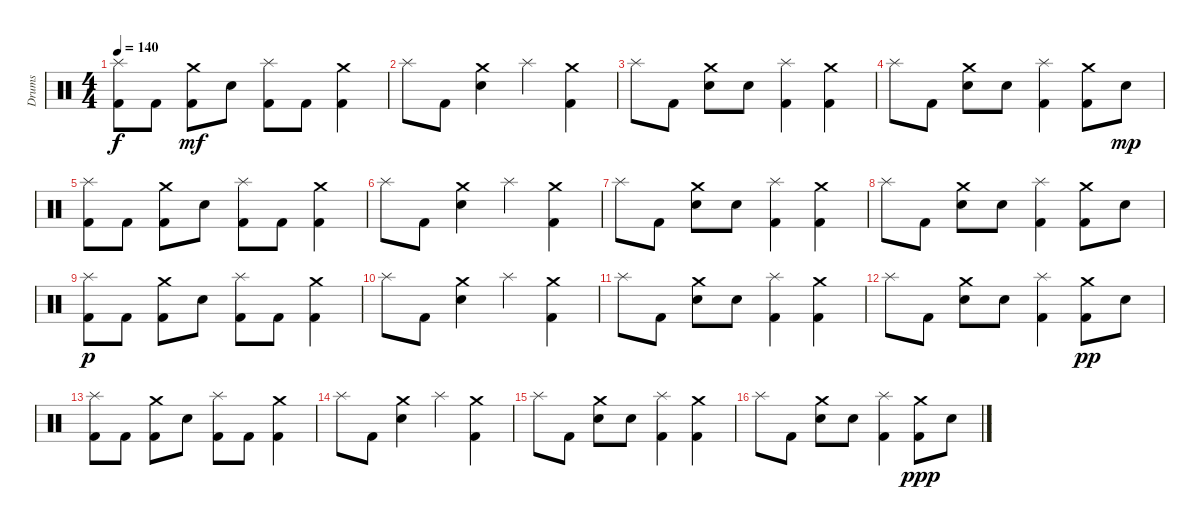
\track ("Drums" "Drums") {instrument percussion}
\staff {score}
\articulation defaults
\ts (4 4)
\tempo 140
\clef neutral
\ks c
("Splash (hit)" "Kick (hit) 2").8{dy f} "Kick (hit) 2".8 ("Crash medium (hit)" "Kick (hit) 2").8{dy mf} "Snare (hit) 2".8 ("Splash (hit)" "Kick (hit) 2").8 "Kick (hit) 2".8 ("Crash medium (hit)" "Kick (hit) 2").4 |
"Splash (hit)".8 "Kick (hit) 2".8 ("Crash medium (hit)" "Snare (hit) 2").4 "Splash (hit)".4 ("Crash medium (hit)" "Kick (hit) 2").4 |
"Splash (hit)".8 "Kick (hit) 2".8 ("Crash medium (hit)" "Snare (hit) 2").8 "Snare (hit) 2".8 ("Splash (hit)" "Kick (hit) 2").4 ("Crash medium (hit)" "Kick (hit) 2").4 |
"Splash (hit)".8 "Kick (hit) 2".8 ("Crash medium (hit)" "Snare (hit) 2").8 "Snare (hit) 2".8 ("Splash (hit)" "Kick (hit) 2").4 ("Crash medium (hit)" "Kick (hit) 2").8 "Snare (hit) 2".8{dy mp} |
("Splash (hit)" "Kick (hit) 2").8 "Kick (hit) 2".8 ("Crash medium (hit)" "Kick (hit) 2").8 "Snare (hit) 2".8 ("Splash (hit)" "Kick (hit) 2").8 "Kick (hit) 2".8 ("Crash medium (hit)" "Kick (hit) 2").4 |
"Splash (hit)".8 "Kick (hit) 2".8 ("Crash medium (hit)" "Snare (hit) 2").4 "Splash (hit)".4 ("Crash medium (hit)" "Kick (hit) 2").4 |
"Splash (hit)".8 "Kick (hit) 2".8 ("Crash medium (hit)" "Snare (hit) 2").8 "Snare (hit) 2".8 ("Splash (hit)" "Kick (hit) 2").4 ("Crash medium (hit)" "Kick (hit) 2").4 |
"Splash (hit)".8 "Kick (hit) 2".8 ("Crash medium (hit)" "Snare (hit) 2").8 "Snare (hit) 2".8 ("Splash (hit)" "Kick (hit) 2").4 ("Crash medium (hit)" "Kick (hit) 2").8 "Snare (hit) 2".8 |
("Splash (hit)" "Kick (hit) 2").8{dy p} "Kick (hit) 2".8 ("Crash medium (hit)" "Kick (hit) 2").8 "Snare (hit) 2".8 ("Splash (hit)" "Kick (hit) 2").8 "Kick (hit) 2".8 ("Crash medium (hit)" "Kick (hit) 2").4 |
"Splash (hit)".8 "Kick (hit) 2".8 ("Crash medium (hit)" "Snare (hit) 2").4 "Splash (hit)".4 ("Crash medium (hit)" "Kick (hit) 2").4 |
"Splash (hit)".8 "Kick (hit) 2".8 ("Crash medium (hit)" "Snare (hit) 2").8 "Snare (hit) 2".8 ("Splash (hit)" "Kick (hit) 2").4 ("Crash medium (hit)" "Kick (hit) 2").4 |
"Splash (hit)".8 "Kick (hit) 2".8 ("Crash medium (hit)" "Snare (hit) 2").8 "Snare (hit) 2".8 ("Splash (hit)" "Kick (hit) 2").4 ("Crash medium (hit)" "Kick (hit) 2").8{dy pp} "Snare (hit) 2".8 |
("Splash (hit)" "Kick (hit) 2").8 "Kick (hit) 2".8 ("Crash medium (hit)" "Kick (hit) 2").8 "Snare (hit) 2".8 ("Splash (hit)" "Kick (hit) 2").8 "Kick (hit) 2".8 ("Crash medium (hit)" "Kick (hit) 2").4 |
"Splash (hit)".8 "Kick (hit) 2".8 ("Crash medium (hit)" "Snare (hit) 2").4 "Splash (hit)".4 ("Crash medium (hit)" "Kick (hit) 2").4 |
"Splash (hit)".8 "Kick (hit) 2".8 ("Crash medium (hit)" "Snare (hit) 2").8 "Snare (hit) 2".8 ("Splash (hit)" "Kick (hit) 2").4 ("Crash medium (hit)" "Kick (hit) 2").4 |
"Splash (hit)".8 "Kick (hit) 2".8 ("Crash medium (hit)" "Snare (hit) 2").8 "Snare (hit) 2".8 ("Splash (hit)" "Kick (hit) 2").4 ("Crash medium (hit)" "Kick (hit) 2").8{dy ppp} "Snare (hit) 2".8
